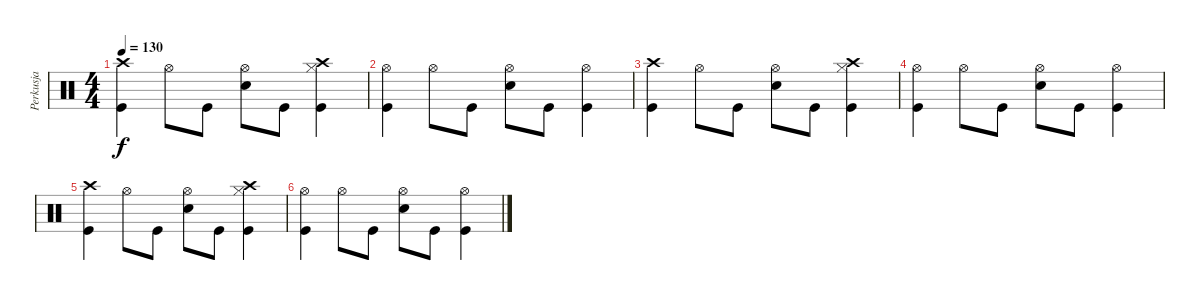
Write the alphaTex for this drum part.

\track ("Perkusja" "Perkusja") {instrument percussion}
\staff {score}
\articulation defaults
\ts (4 4)
\tempo 130
\clef neutral
\ks c
("Crash high (hit)" "Kick (hit)").4{dy f} "Hi-Hat (open)".8 "Kick (hit)".8 ("Hi-Hat (open)" "Electric Snare (hit)").8 "Kick (hit)".8 ("Crash high (hit)" "Hi-Hat (closed)" "Kick (hit)").4 |
("Hi-Hat (open)" "Kick (hit)").4 "Hi-Hat (open)".8 "Kick (hit)".8 ("Hi-Hat (open)" "Electric Snare (hit)").8 "Kick (hit)".8 ("Hi-Hat (open)" "Kick (hit)").4 |
("Crash high (hit)" "Kick (hit)").4{volume 0} "Hi-Hat (open)".8 "Kick (hit)".8 ("Hi-Hat (open)" "Electric Snare (hit)").8 "Kick (hit)".8 ("Crash high (hit)" "Hi-Hat (closed)" "Kick (hit)").4 |
("Hi-Hat (open)" "Kick (hit)").4 "Hi-Hat (open)".8 "Kick (hit)".8 ("Hi-Hat (open)" "Electric Snare (hit)").8 "Kick (hit)".8 ("Hi-Hat (open)" "Kick (hit)").4 |
("Crash high (hit)" "Kick (hit)").4 "Hi-Hat (open)".8 "Kick (hit)".8 ("Hi-Hat (open)" "Electric Snare (hit)").8 "Kick (hit)".8 ("Crash high (hit)" "Hi-Hat (closed)" "Kick (hit)").4 |
("Hi-Hat (open)" "Kick (hit)").4 "Hi-Hat (open)".8 "Kick (hit)".8 ("Hi-Hat (open)" "Electric Snare (hit)").8 "Kick (hit)".8 ("Hi-Hat (open)" "Kick (hit)").4
